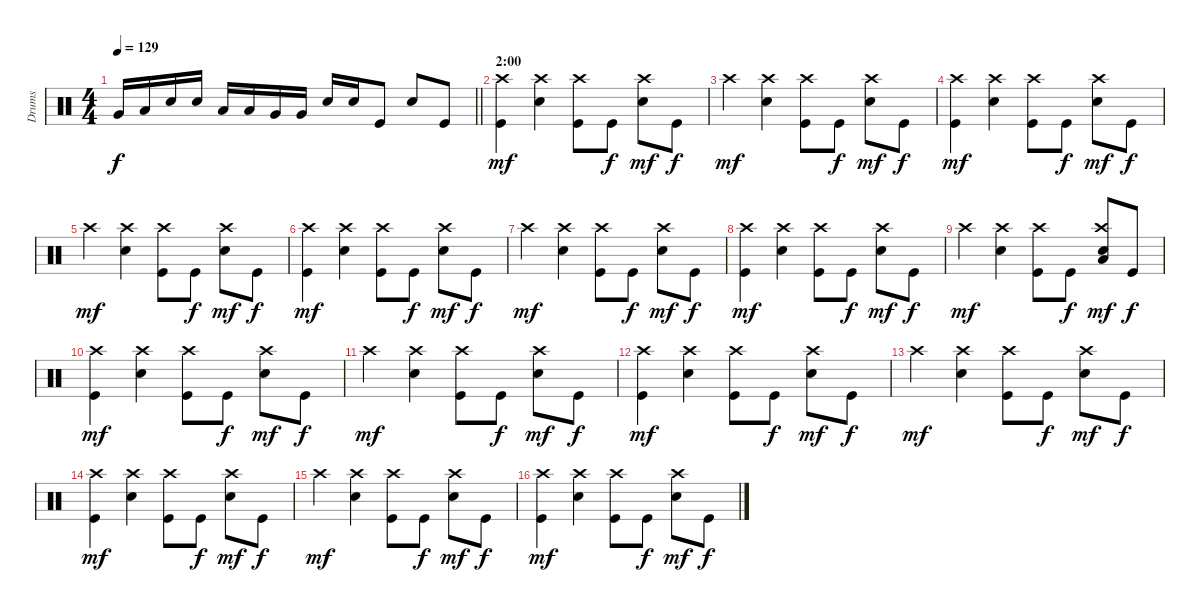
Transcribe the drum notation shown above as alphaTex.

\track ("Drums" "Drums") {instrument percussion}
\staff {score}
\articulation defaults
\ts (4 4)
\tempo 129
\clef neutral
\barLineRight lightlight
\ks c "Very Low Tom (hit)".16{dy f} "Low Tom (hit)".16 "Snare (hit) 2".16 "Snare (hit) 2".16 "Low Tom (hit)".16 "Low Tom (hit)".16 "Very Low Tom (hit)".16 "Very Low Tom (hit)".16 "Snare (hit) 2".16 "Snare (hit) 2".16 "Kick (hit)".8 "Snare (hit) 2".8 "Kick (hit)".8
|
\section ("" "2:00")
("Crash high (hit)" "Kick (hit)").4{dy mf} ("Crash high (hit)" "Snare (hit) 2").4 ("Crash high (hit)" "Kick (hit)").8 "Kick (hit)".8{dy f} ("Crash high (hit)" "Snare (hit) 2").8{dy mf} "Kick (hit)".8{dy f} |
"Crash high (hit)".4{dy mf} ("Crash high (hit)" "Snare (hit) 2").4 ("Crash high (hit)" "Kick (hit)").8 "Kick (hit)".8{dy f} ("Crash high (hit)" "Snare (hit) 2").8{dy mf} "Kick (hit)".8{dy f} |
("Crash high (hit)" "Kick (hit)").4{dy mf} ("Crash high (hit)" "Snare (hit) 2").4 ("Crash high (hit)" "Kick (hit)").8 "Kick (hit)".8{dy f} ("Crash high (hit)" "Snare (hit) 2").8{dy mf} "Kick (hit)".8{dy f} |
"Crash high (hit)".4{dy mf} ("Crash high (hit)" "Snare (hit) 2").4 ("Crash high (hit)" "Kick (hit)").8 "Kick (hit)".8{dy f} ("Crash high (hit)" "Snare (hit) 2").8{dy mf} "Kick (hit)".8{dy f} |
("Crash high (hit)" "Kick (hit)").4{dy mf} ("Crash high (hit)" "Snare (hit) 2").4 ("Crash high (hit)" "Kick (hit)").8 "Kick (hit)".8{dy f} ("Crash high (hit)" "Snare (hit) 2").8{dy mf} "Kick (hit)".8{dy f} |
"Crash high (hit)".4{dy mf} ("Crash high (hit)" "Snare (hit) 2").4 ("Crash high (hit)" "Kick (hit)").8 "Kick (hit)".8{dy f} ("Crash high (hit)" "Snare (hit) 2").8{dy mf} "Kick (hit)".8{dy f} |
("Crash high (hit)" "Kick (hit)").4{dy mf} ("Crash high (hit)" "Snare (hit) 2").4 ("Crash high (hit)" "Kick (hit)").8 "Kick (hit)".8{dy f} ("Crash high (hit)" "Snare (hit) 2").8{dy mf} "Kick (hit)".8{dy f} |
"Crash high (hit)".4{dy mf} ("Crash high (hit)" "Snare (hit) 2").4 ("Crash high (hit)" "Kick (hit)").8 "Kick (hit)".8{dy f} ("Crash high (hit)" "Low Floor Tom (hit)" "Snare (hit) 2").8{dy mf} "Kick (hit)".8{dy f} |
("Crash high (hit)" "Kick (hit)").4{dy mf} ("Crash high (hit)" "Snare (hit) 2").4 ("Crash high (hit)" "Kick (hit)").8 "Kick (hit)".8{dy f} ("Crash high (hit)" "Snare (hit) 2").8{dy mf} "Kick (hit)".8{dy f} |
"Crash high (hit)".4{dy mf} ("Crash high (hit)" "Snare (hit) 2").4 ("Crash high (hit)" "Kick (hit)").8 "Kick (hit)".8{dy f} ("Crash high (hit)" "Snare (hit) 2").8{dy mf} "Kick (hit)".8{dy f} |
("Crash high (hit)" "Kick (hit)").4{dy mf} ("Crash high (hit)" "Snare (hit) 2").4 ("Crash high (hit)" "Kick (hit)").8 "Kick (hit)".8{dy f} ("Crash high (hit)" "Snare (hit) 2").8{dy mf} "Kick (hit)".8{dy f} |
"Crash high (hit)".4{dy mf} ("Crash high (hit)" "Snare (hit) 2").4 ("Crash high (hit)" "Kick (hit)").8 "Kick (hit)".8{dy f} ("Crash high (hit)" "Snare (hit) 2").8{dy mf} "Kick (hit)".8{dy f} |
("Crash high (hit)" "Kick (hit)").4{dy mf} ("Crash high (hit)" "Snare (hit) 2").4 ("Crash high (hit)" "Kick (hit)").8 "Kick (hit)".8{dy f} ("Crash high (hit)" "Snare (hit) 2").8{dy mf} "Kick (hit)".8{dy f} |
"Crash high (hit)".4{dy mf} ("Crash high (hit)" "Snare (hit) 2").4 ("Crash high (hit)" "Kick (hit)").8 "Kick (hit)".8{dy f} ("Crash high (hit)" "Snare (hit) 2").8{dy mf} "Kick (hit)".8{dy f} |
("Crash high (hit)" "Kick (hit)").4{dy mf} ("Crash high (hit)" "Snare (hit) 2").4 ("Crash high (hit)" "Kick (hit)").8 "Kick (hit)".8{dy f} ("Crash high (hit)" "Snare (hit) 2").8{dy mf} "Kick (hit)".8{dy f}
